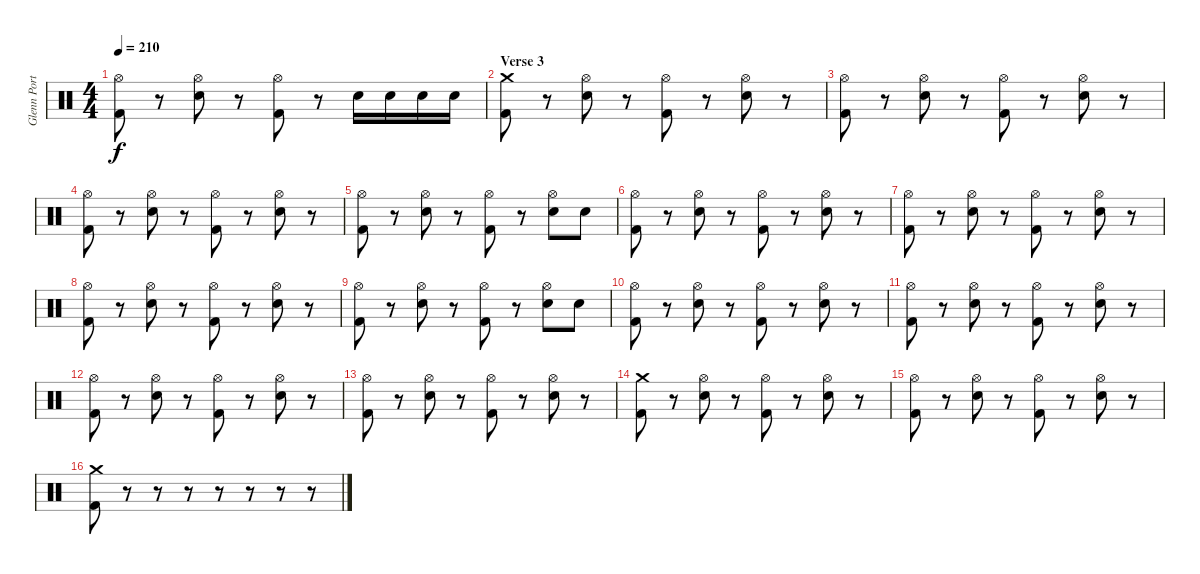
\track ("Glenn Porter - Drums" "Glenn Port") {instrument percussion}
\staff {score}
\articulation defaults
\ts (4 4)
\tempo 210
\clef neutral
\ks c
("Hi-Hat (open)" "Kick (hit) 2").8{dy f} r.8 ("Hi-Hat (open)" "Electric Snare (hit)").8 r.8 ("Hi-Hat (open)" "Kick (hit) 2").8 r.8 "Electric Snare (hit)".16 "Electric Snare (hit)".16 "Electric Snare (hit)".16 "Electric Snare (hit)".16 |
\section ("" "Verse 3")
("Crash medium (hit)" "Kick (hit) 2").8 r.8 ("Hi-Hat (open)" "Electric Snare (hit)").8 r.8 ("Hi-Hat (open)" "Kick (hit) 2").8 r.8 ("Hi-Hat (open)" "Electric Snare (hit)").8 r.8 |
("Hi-Hat (open)" "Kick (hit) 2").8 r.8 ("Hi-Hat (open)" "Electric Snare (hit)").8 r.8 ("Hi-Hat (open)" "Kick (hit) 2").8 r.8 ("Hi-Hat (open)" "Electric Snare (hit)").8 r.8 |
("Hi-Hat (open)" "Kick (hit) 2").8 r.8 ("Hi-Hat (open)" "Electric Snare (hit)").8 r.8 ("Hi-Hat (open)" "Kick (hit) 2").8 r.8 ("Hi-Hat (open)" "Electric Snare (hit)").8 r.8 |
("Hi-Hat (open)" "Kick (hit) 2").8 r.8 ("Hi-Hat (open)" "Electric Snare (hit)").8 r.8 ("Hi-Hat (open)" "Kick (hit) 2").8 r.8 ("Hi-Hat (open)" "Electric Snare (hit)").8 "Electric Snare (hit)".8 |
("Hi-Hat (open)" "Kick (hit) 2").8 r.8 ("Hi-Hat (open)" "Electric Snare (hit)").8 r.8 ("Hi-Hat (open)" "Kick (hit) 2").8 r.8 ("Hi-Hat (open)" "Electric Snare (hit)").8 r.8 |
("Hi-Hat (open)" "Kick (hit) 2").8 r.8 ("Hi-Hat (open)" "Electric Snare (hit)").8 r.8 ("Hi-Hat (open)" "Kick (hit) 2").8 r.8 ("Hi-Hat (open)" "Electric Snare (hit)").8 r.8 |
("Hi-Hat (open)" "Kick (hit) 2").8 r.8 ("Hi-Hat (open)" "Electric Snare (hit)").8 r.8 ("Hi-Hat (open)" "Kick (hit) 2").8 r.8 ("Hi-Hat (open)" "Electric Snare (hit)").8 r.8 |
("Hi-Hat (open)" "Kick (hit) 2").8 r.8 ("Hi-Hat (open)" "Electric Snare (hit)").8 r.8 ("Hi-Hat (open)" "Kick (hit) 2").8 r.8 ("Hi-Hat (open)" "Electric Snare (hit)").8 "Electric Snare (hit)".8 |
("Hi-Hat (open)" "Kick (hit) 2").8 r.8 ("Hi-Hat (open)" "Electric Snare (hit)").8 r.8 ("Hi-Hat (open)" "Kick (hit) 2").8 r.8 ("Hi-Hat (open)" "Electric Snare (hit)").8 r.8 |
("Hi-Hat (open)" "Kick (hit) 2").8 r.8 ("Hi-Hat (open)" "Electric Snare (hit)").8 r.8 ("Hi-Hat (open)" "Kick (hit) 2").8 r.8 ("Hi-Hat (open)" "Electric Snare (hit)").8 r.8 |
("Hi-Hat (open)" "Kick (hit) 2").8 r.8 ("Hi-Hat (open)" "Electric Snare (hit)").8 r.8 ("Hi-Hat (open)" "Kick (hit) 2").8 r.8 ("Hi-Hat (open)" "Electric Snare (hit)").8 r.8 |
("Hi-Hat (open)" "Kick (hit) 2").8 r.8 ("Hi-Hat (open)" "Electric Snare (hit)").8 r.8 ("Hi-Hat (open)" "Kick (hit) 2").8 r.8 ("Hi-Hat (open)" "Electric Snare (hit)").8 r.8 |
("Crash medium (hit)" "Kick (hit) 2").8 r.8 ("Hi-Hat (open)" "Electric Snare (hit)").8 r.8 ("Hi-Hat (open)" "Kick (hit) 2").8 r.8 ("Hi-Hat (open)" "Electric Snare (hit)").8 r.8 |
("Hi-Hat (open)" "Kick (hit) 2").8 r.8 ("Hi-Hat (open)" "Electric Snare (hit)").8 r.8 ("Hi-Hat (open)" "Kick (hit) 2").8 r.8 ("Hi-Hat (open)" "Electric Snare (hit)").8 r.8 |
("Crash medium (hit)" "Kick (hit) 2").8 r.8 r.8 r.8 r.8 r.8 r.8 r.8
